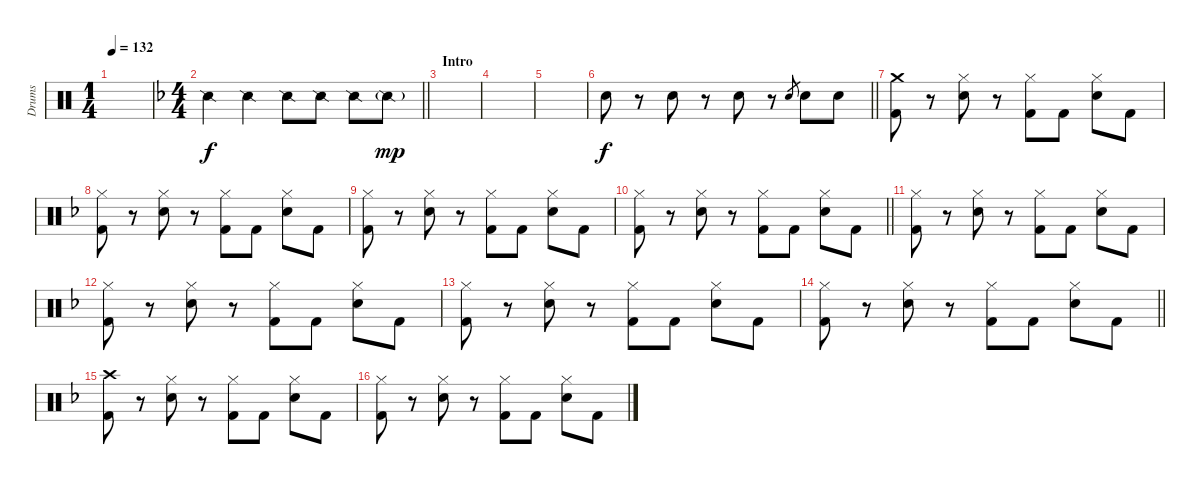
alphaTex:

\track ("Drums" "Drums") {instrument percussion}
\staff {score}
\articulation defaults
\ts (1 4)
\tempo 132
\clef neutral
\ks c
|
\ts (4 4)
\barLineRight lightlight
\ks f "Snare (side stick) 2".4 "Snare (side stick) 2".4 "Snare (side stick) 2".8 "Snare (side stick) 2".8 "Snare (side stick) 2".8 "Snare (side stick) 2"{g}.8{dy mp}
|
\section ("" "Intro")
|
|
|
\barLineRight lightlight "Snare (hit) 2".8{dy f}
r.8 "Snare (hit) 2".8 r.8 "Snare (hit) 2".8 r.8 "Snare (hit) 2".8{gr} "Snare (hit) 2".8 "Snare (hit) 2".8 |
("Crash medium (hit)" "Kick (hit) 2").8 r.8 ("Hi-Hat (closed)" "Snare (hit) 2").8 r.8 ("Hi-Hat (closed)" "Kick (hit) 2").8 "Kick (hit) 2".8 ("Hi-Hat (closed)" "Snare (hit) 2").8 "Kick (hit) 2".8 |
("Hi-Hat (closed)" "Kick (hit) 2").8 r.8 ("Hi-Hat (closed)" "Snare (hit) 2").8 r.8 ("Hi-Hat (closed)" "Kick (hit) 2").8 "Kick (hit) 2".8 ("Hi-Hat (closed)" "Snare (hit) 2").8 "Kick (hit) 2".8 |
("Hi-Hat (closed)" "Kick (hit) 2").8 r.8 ("Hi-Hat (closed)" "Snare (hit) 2").8 r.8 ("Hi-Hat (closed)" "Kick (hit) 2").8 "Kick (hit) 2".8 ("Hi-Hat (closed)" "Snare (hit) 2").8 "Kick (hit) 2".8 |
\barLineRight lightlight
("Hi-Hat (closed)" "Kick (hit) 2").8 r.8 ("Hi-Hat (closed)" "Snare (hit) 2").8 r.8 ("Hi-Hat (closed)" "Kick (hit) 2").8 "Kick (hit) 2".8 ("Hi-Hat (closed)" "Snare (hit) 2").8 "Kick (hit) 2".8 |
("Hi-Hat (closed)" "Kick (hit) 2").8 r.8 ("Hi-Hat (closed)" "Snare (hit) 2").8 r.8 ("Hi-Hat (closed)" "Kick (hit) 2").8 "Kick (hit) 2".8 ("Hi-Hat (closed)" "Snare (hit) 2").8 "Kick (hit) 2".8 |
("Hi-Hat (closed)" "Kick (hit) 2").8 r.8 ("Hi-Hat (closed)" "Snare (hit) 2").8 r.8 ("Hi-Hat (closed)" "Kick (hit) 2").8 "Kick (hit) 2".8 ("Hi-Hat (closed)" "Snare (hit) 2").8 "Kick (hit) 2".8 |
("Hi-Hat (closed)" "Kick (hit) 2").8 r.8 ("Hi-Hat (closed)" "Snare (hit) 2").8 r.8 ("Hi-Hat (closed)" "Kick (hit) 2").8 "Kick (hit) 2".8 ("Hi-Hat (closed)" "Snare (hit) 2").8 "Kick (hit) 2".8 |
\barLineRight lightlight
("Hi-Hat (closed)" "Kick (hit) 2").8 r.8 ("Hi-Hat (closed)" "Snare (hit) 2").8 r.8 ("Hi-Hat (closed)" "Kick (hit) 2").8 "Kick (hit) 2".8 ("Hi-Hat (closed)" "Snare (hit) 2").8 "Kick (hit) 2".8 |
("Crash high (hit)" "Kick (hit) 2").8 r.8 ("Hi-Hat (closed)" "Snare (hit) 2").8 r.8 ("Hi-Hat (closed)" "Kick (hit) 2").8 "Kick (hit) 2".8 ("Hi-Hat (closed)" "Snare (hit) 2").8 "Kick (hit) 2".8 |
("Hi-Hat (closed)" "Kick (hit) 2").8 r.8 ("Hi-Hat (closed)" "Snare (hit) 2").8 r.8 ("Hi-Hat (closed)" "Kick (hit) 2").8 "Kick (hit) 2".8 ("Hi-Hat (closed)" "Snare (hit) 2").8 "Kick (hit) 2".8
